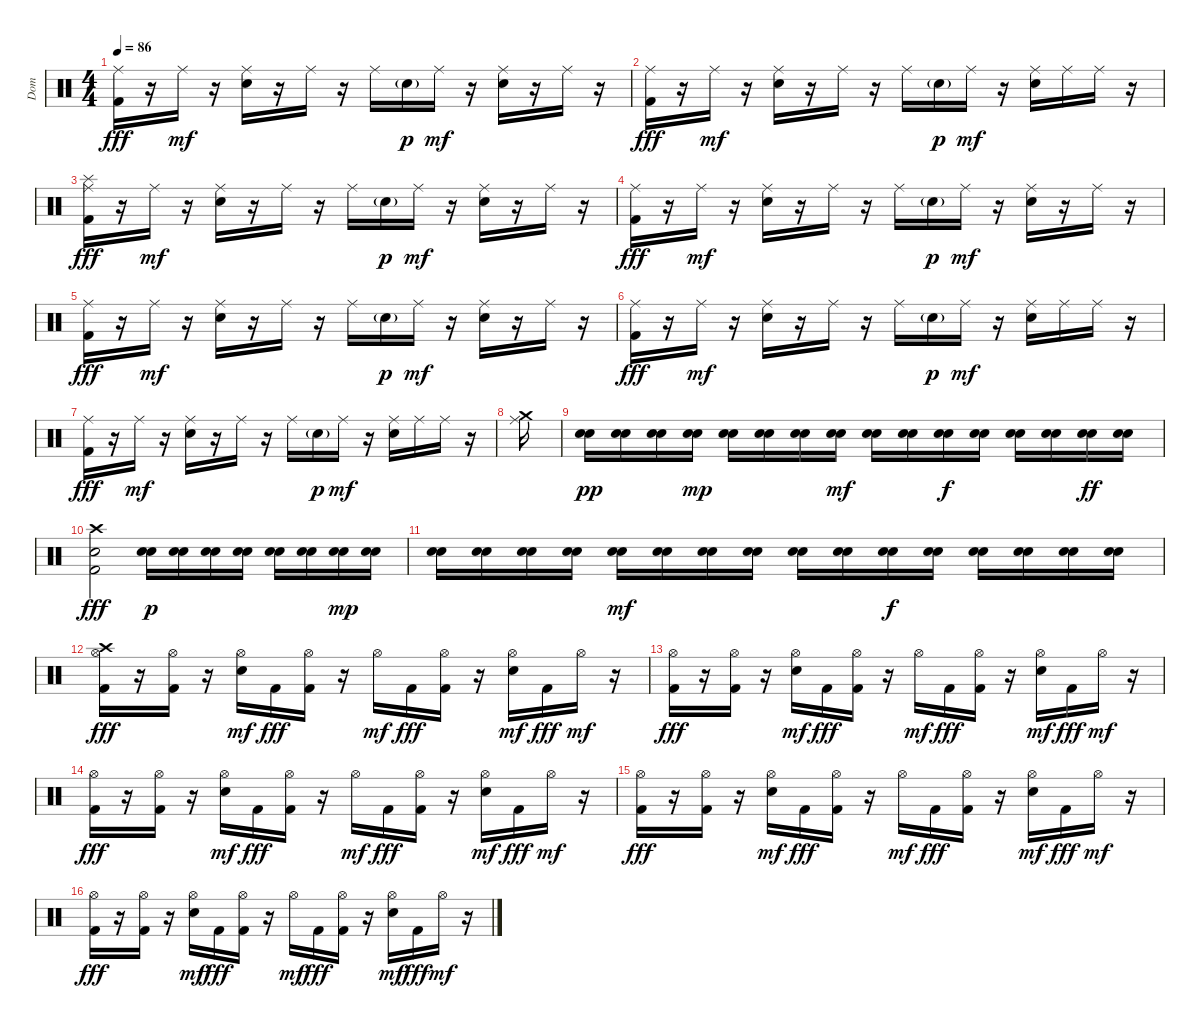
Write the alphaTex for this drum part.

\track ("Dom" "Dom") {instrument percussion}
\staff {score}
\articulation defaults
\ts (4 4)
\tempo 86
\clef neutral
\ks c
("Ride (middle)" "Kick (hit) 2").16{dy fff} r.16 "Ride (middle)".16{dy mf} r.16 ("Ride (middle)" "Electric Snare (hit)").16 r.16 "Ride (middle)".16 r.16 "Ride (middle)".16 "Electric Snare (hit)"{g}.16{dy p} "Ride (middle)".16{dy mf} r.16 ("Ride (middle)" "Electric Snare (hit)").16 r.16 "Ride (middle)".16 r.16 |
("Ride (middle)" "Kick (hit) 2").16{dy fff} r.16 "Ride (middle)".16{dy mf} r.16 ("Ride (middle)" "Electric Snare (hit)").16 r.16 "Ride (middle)".16 r.16 "Ride (middle)".16 "Electric Snare (hit)"{g}.16{dy p} "Ride (middle)".16{dy mf} r.16 ("Ride (middle)" "Electric Snare (hit)").16 "Ride (middle)".16 "Ride (middle)".16 r.16 |
("Ride (middle)" "Splash (hit)" "Kick (hit) 2").16{dy fff} r.16 "Ride (middle)".16{dy mf} r.16 ("Ride (middle)" "Electric Snare (hit)").16 r.16 "Ride (middle)".16 r.16 "Ride (middle)".16 "Electric Snare (hit)"{g}.16{dy p} "Ride (middle)".16{dy mf} r.16 ("Ride (middle)" "Electric Snare (hit)").16 r.16 "Ride (middle)".16 r.16 |
("Ride (middle)" "Kick (hit) 2").16{dy fff} r.16 "Ride (middle)".16{dy mf} r.16 ("Ride (middle)" "Electric Snare (hit)").16 r.16 "Ride (middle)".16 r.16 "Ride (middle)".16 "Electric Snare (hit)"{g}.16{dy p} "Ride (middle)".16{dy mf} r.16 ("Ride (middle)" "Electric Snare (hit)").16 r.16 "Ride (middle)".16 r.16 |
("Ride (middle)" "Kick (hit) 2").16{dy fff} r.16 "Ride (middle)".16{dy mf} r.16 ("Ride (middle)" "Electric Snare (hit)").16 r.16 "Ride (middle)".16 r.16 "Ride (middle)".16 "Electric Snare (hit)"{g}.16{dy p} "Ride (middle)".16{dy mf} r.16 ("Ride (middle)" "Electric Snare (hit)").16 r.16 "Ride (middle)".16 r.16 |
("Ride (middle)" "Kick (hit) 2").16{dy fff} r.16 "Ride (middle)".16{dy mf} r.16 ("Ride (middle)" "Electric Snare (hit)").16 r.16 "Ride (middle)".16 r.16 "Ride (middle)".16 "Electric Snare (hit)"{g}.16{dy p} "Ride (middle)".16{dy mf} r.16 ("Ride (middle)" "Electric Snare (hit)").16 "Ride (middle)".16 "Ride (middle)".16 r.16 |
("Ride (middle)" "Kick (hit) 2").16{dy fff} r.16 "Ride (middle)".16{dy mf} r.16 ("Ride (middle)" "Electric Snare (hit)").16 r.16 "Ride (middle)".16 r.16 "Ride (middle)".16 "Electric Snare (hit)"{g}.16{dy p} "Ride (middle)".16{dy mf} r.16 ("Ride (middle)" "Electric Snare (hit)").16 "Ride (middle)".16 "Ride (middle)".16 r.16 |
("Ride (middle)" "Crash medium (hit)").16 |
("Electric Snare (hit)" "Electric Snare (hit)").16{dy pp} ("Electric Snare (hit)" "Electric Snare (hit)").16 ("Electric Snare (hit)" "Electric Snare (hit)").16 ("Electric Snare (hit)" "Electric Snare (hit)").16{dy mp} ("Electric Snare (hit)" "Electric Snare (hit)").16 ("Electric Snare (hit)" "Electric Snare (hit)").16 ("Electric Snare (hit)" "Electric Snare (hit)").16 ("Electric Snare (hit)" "Electric Snare (hit)").16{dy mf} ("Electric Snare (hit)" "Electric Snare (hit)").16 ("Electric Snare (hit)" "Electric Snare (hit)").16 ("Electric Snare (hit)" "Electric Snare (hit)").16{dy f} ("Electric Snare (hit)" "Electric Snare (hit)").16 ("Electric Snare (hit)" "Electric Snare (hit)").16 ("Electric Snare (hit)" "Electric Snare (hit)").16 ("Electric Snare (hit)" "Electric Snare (hit)").16{dy ff} ("Electric Snare (hit)" "Electric Snare (hit)").16 |
("Crash high (hit)" "Electric Snare (hit)" "Kick (hit) 2").2{dy fff} ("Electric Snare (hit)" "Electric Snare (hit)").16{dy p} ("Electric Snare (hit)" "Electric Snare (hit)").16 ("Electric Snare (hit)" "Electric Snare (hit)").16 ("Electric Snare (hit)" "Electric Snare (hit)").16 ("Electric Snare (hit)" "Electric Snare (hit)").16 ("Electric Snare (hit)" "Electric Snare (hit)").16 ("Electric Snare (hit)" "Electric Snare (hit)").16{dy mp} ("Electric Snare (hit)" "Electric Snare (hit)").16 |
("Electric Snare (hit)" "Electric Snare (hit)").16 ("Electric Snare (hit)" "Electric Snare (hit)").16 ("Electric Snare (hit)" "Electric Snare (hit)").16 ("Electric Snare (hit)" "Electric Snare (hit)").16 ("Electric Snare (hit)" "Electric Snare (hit)").16{dy mf} ("Electric Snare (hit)" "Electric Snare (hit)").16 ("Electric Snare (hit)" "Electric Snare (hit)").16 ("Electric Snare (hit)" "Electric Snare (hit)").16 ("Electric Snare (hit)" "Electric Snare (hit)").16 ("Electric Snare (hit)" "Electric Snare (hit)").16 ("Electric Snare (hit)" "Electric Snare (hit)").16{dy f} ("Electric Snare (hit)" "Electric Snare (hit)").16 ("Electric Snare (hit)" "Electric Snare (hit)").16 ("Electric Snare (hit)" "Electric Snare (hit)").16 ("Electric Snare (hit)" "Electric Snare (hit)").16 ("Electric Snare (hit)" "Electric Snare (hit)").16 |
("Crash high (hit)" "Hi-Hat (open)" "Kick (hit) 2").16{dy fff} r.16 ("Hi-Hat (open)" "Kick (hit) 2").16 r.16 ("Hi-Hat (open)" "Electric Snare (hit)").16{dy mf} "Kick (hit) 2".16{dy fff} ("Hi-Hat (open)" "Kick (hit) 2").16 r.16 "Hi-Hat (open)".16{dy mf} "Kick (hit) 2".16{dy fff} ("Hi-Hat (open)" "Kick (hit) 2").16 r.16 ("Hi-Hat (open)" "Electric Snare (hit)").16{dy mf} "Kick (hit) 2".16{dy fff} "Hi-Hat (open)".16{dy mf} r.16 |
("Hi-Hat (open)" "Kick (hit) 2").16{dy fff} r.16 ("Hi-Hat (open)" "Kick (hit) 2").16 r.16 ("Hi-Hat (open)" "Electric Snare (hit)").16{dy mf} "Kick (hit) 2".16{dy fff} ("Hi-Hat (open)" "Kick (hit) 2").16 r.16 "Hi-Hat (open)".16{dy mf} "Kick (hit) 2".16{dy fff} ("Hi-Hat (open)" "Kick (hit) 2").16 r.16 ("Hi-Hat (open)" "Electric Snare (hit)").16{dy mf} "Kick (hit) 2".16{dy fff} "Hi-Hat (open)".16{dy mf} r.16 |
("Hi-Hat (open)" "Kick (hit) 2").16{dy fff} r.16 ("Hi-Hat (open)" "Kick (hit) 2").16 r.16 ("Hi-Hat (open)" "Electric Snare (hit)").16{dy mf} "Kick (hit) 2".16{dy fff} ("Hi-Hat (open)" "Kick (hit) 2").16 r.16 "Hi-Hat (open)".16{dy mf} "Kick (hit) 2".16{dy fff} ("Hi-Hat (open)" "Kick (hit) 2").16 r.16 ("Hi-Hat (open)" "Electric Snare (hit)").16{dy mf} "Kick (hit) 2".16{dy fff} "Hi-Hat (open)".16{dy mf} r.16 |
("Hi-Hat (open)" "Kick (hit) 2").16{dy fff} r.16 ("Hi-Hat (open)" "Kick (hit) 2").16 r.16 ("Hi-Hat (open)" "Electric Snare (hit)").16{dy mf} "Kick (hit) 2".16{dy fff} ("Hi-Hat (open)" "Kick (hit) 2").16 r.16 "Hi-Hat (open)".16{dy mf} "Kick (hit) 2".16{dy fff} ("Hi-Hat (open)" "Kick (hit) 2").16 r.16 ("Hi-Hat (open)" "Electric Snare (hit)").16{dy mf} "Kick (hit) 2".16{dy fff} "Hi-Hat (open)".16{dy mf} r.16 |
("Hi-Hat (open)" "Kick (hit) 2").16{dy fff} r.16 ("Hi-Hat (open)" "Kick (hit) 2").16 r.16 ("Hi-Hat (open)" "Electric Snare (hit)").16{dy mf} "Kick (hit) 2".16{dy fff} ("Hi-Hat (open)" "Kick (hit) 2").16 r.16 "Hi-Hat (open)".16{dy mf} "Kick (hit) 2".16{dy fff} ("Hi-Hat (open)" "Kick (hit) 2").16 r.16 ("Hi-Hat (open)" "Electric Snare (hit)").16{dy mf} "Kick (hit) 2".16{dy fff} "Hi-Hat (open)".16{dy mf} r.16
